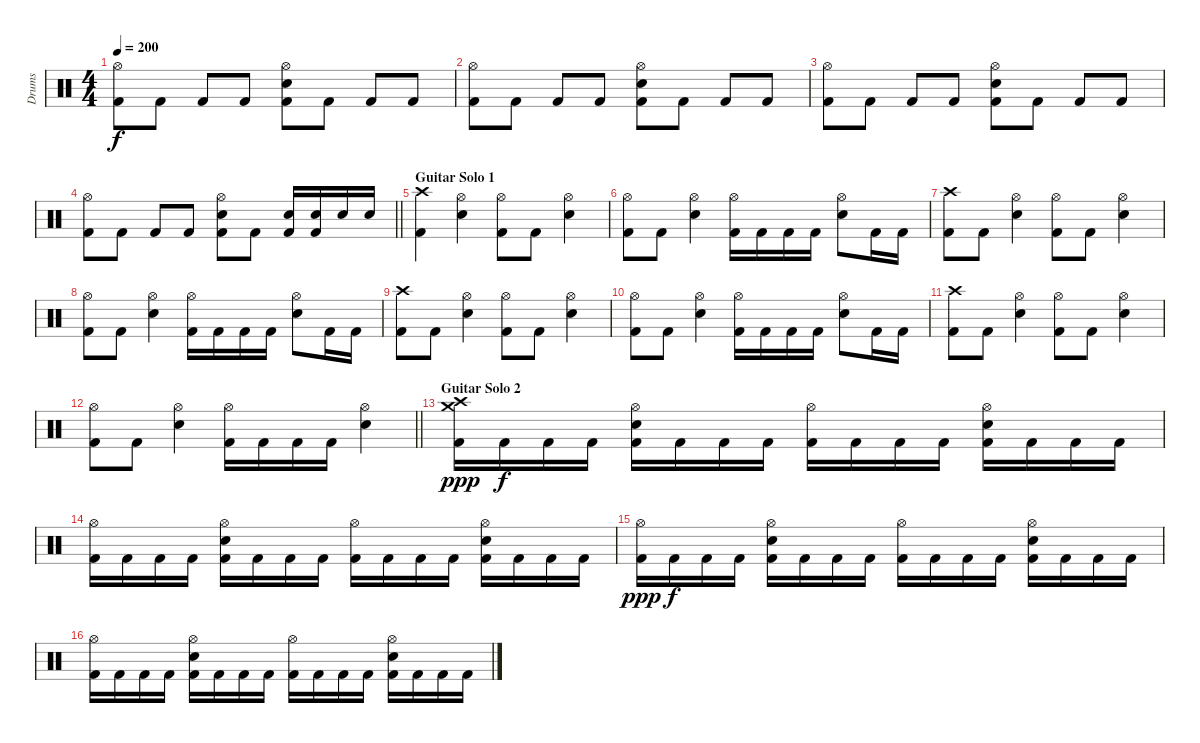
\track ("Drums" "Drums") {instrument percussion}
\staff {score}
\articulation defaults
\ts (4 4)
\tempo 200
\clef neutral
\ks c
("Hi-Hat (open)" "Kick (hit) 2").8{dy f} "Kick (hit) 2".8 "Kick (hit) 2".8 "Kick (hit) 2".8 ("Hi-Hat (open)" "Electric Snare (hit)" "Kick (hit) 2").8 "Kick (hit) 2".8 "Kick (hit) 2".8 "Kick (hit) 2".8 |
("Hi-Hat (open)" "Kick (hit) 2").8 "Kick (hit) 2".8 "Kick (hit) 2".8 "Kick (hit) 2".8 ("Hi-Hat (open)" "Electric Snare (hit)" "Kick (hit) 2").8 "Kick (hit) 2".8 "Kick (hit) 2".8 "Kick (hit) 2".8 |
("Hi-Hat (open)" "Kick (hit) 2").8 "Kick (hit) 2".8 "Kick (hit) 2".8 "Kick (hit) 2".8 ("Hi-Hat (open)" "Electric Snare (hit)" "Kick (hit) 2").8 "Kick (hit) 2".8 "Kick (hit) 2".8 "Kick (hit) 2".8 |
\barLineRight lightlight
("Hi-Hat (open)" "Kick (hit) 2").8 "Kick (hit) 2".8 "Kick (hit) 2".8 "Kick (hit) 2".8 ("Hi-Hat (open)" "Electric Snare (hit)" "Kick (hit) 2").8 "Kick (hit) 2".8 ("Electric Snare (hit)" "Kick (hit) 2").16 ("Electric Snare (hit)" "Kick (hit) 2").16 "Electric Snare (hit)".16 "Electric Snare (hit)".16 |
\section ("" "Guitar Solo 1")
("Crash high (hit)" "Kick (hit) 2").4 ("Hi-Hat (open)" "Electric Snare (hit)").4 ("Hi-Hat (open)" "Kick (hit) 2").8 "Kick (hit) 2".8 ("Hi-Hat (open)" "Electric Snare (hit)").4 |
("Hi-Hat (open)" "Kick (hit) 2").8 "Kick (hit) 2".8 ("Hi-Hat (open)" "Electric Snare (hit)").4 ("Hi-Hat (open)" "Kick (hit) 2").16 "Kick (hit) 2".16 "Kick (hit) 2".16 "Kick (hit) 2".16 ("Hi-Hat (open)" "Electric Snare (hit)").8 "Kick (hit) 2".16 "Kick (hit) 2".16 |
("Crash high (hit)" "Kick (hit) 2").8 "Kick (hit) 2".8 ("Hi-Hat (open)" "Electric Snare (hit)").4 ("Hi-Hat (open)" "Kick (hit) 2").8 "Kick (hit) 2".8 ("Hi-Hat (open)" "Electric Snare (hit)").4 |
("Hi-Hat (open)" "Kick (hit) 2").8 "Kick (hit) 2".8 ("Hi-Hat (open)" "Electric Snare (hit)").4 ("Hi-Hat (open)" "Kick (hit) 2").16 "Kick (hit) 2".16 "Kick (hit) 2".16 "Kick (hit) 2".16 ("Hi-Hat (open)" "Electric Snare (hit)").8 "Kick (hit) 2".16 "Kick (hit) 2".16 |
("Crash high (hit)" "Kick (hit) 2").8 "Kick (hit) 2".8 ("Hi-Hat (open)" "Electric Snare (hit)").4 ("Hi-Hat (open)" "Kick (hit) 2").8 "Kick (hit) 2".8 ("Hi-Hat (open)" "Electric Snare (hit)").4 |
("Hi-Hat (open)" "Kick (hit) 2").8 "Kick (hit) 2".8 ("Hi-Hat (open)" "Electric Snare (hit)").4 ("Hi-Hat (open)" "Kick (hit) 2").16 "Kick (hit) 2".16 "Kick (hit) 2".16 "Kick (hit) 2".16 ("Hi-Hat (open)" "Electric Snare (hit)").8 "Kick (hit) 2".16 "Kick (hit) 2".16 |
("Crash high (hit)" "Kick (hit) 2").8 "Kick (hit) 2".8 ("Hi-Hat (open)" "Electric Snare (hit)").4 ("Hi-Hat (open)" "Kick (hit) 2").8 "Kick (hit) 2".8 ("Hi-Hat (open)" "Electric Snare (hit)").4 |
\barLineRight lightlight
("Hi-Hat (open)" "Kick (hit) 2").8 "Kick (hit) 2".8 ("Hi-Hat (open)" "Electric Snare (hit)").4 ("Hi-Hat (open)" "Kick (hit) 2").16 "Kick (hit) 2".16 "Kick (hit) 2".16 "Kick (hit) 2".16 ("Hi-Hat (open)" "Electric Snare (hit)").4 |
\section ("" "Guitar Solo 2")
("Crash high (hit)" "Crash medium (hit)" "Kick (hit) 2").16{dy ppp} "Kick (hit) 2".16{dy f} "Kick (hit) 2".16 "Kick (hit) 2".16 ("Hi-Hat (open)" "Electric Snare (hit)" "Kick (hit) 2").16 "Kick (hit) 2".16 "Kick (hit) 2".16 "Kick (hit) 2".16 ("Hi-Hat (open)" "Kick (hit) 2").16 "Kick (hit) 2".16 "Kick (hit) 2".16 "Kick (hit) 2".16 ("Hi-Hat (open)" "Electric Snare (hit)" "Kick (hit) 2").16 "Kick (hit) 2".16 "Kick (hit) 2".16 "Kick (hit) 2".16 |
("Hi-Hat (open)" "Kick (hit) 2").16 "Kick (hit) 2".16 "Kick (hit) 2".16 "Kick (hit) 2".16 ("Hi-Hat (open)" "Electric Snare (hit)" "Kick (hit) 2").16 "Kick (hit) 2".16 "Kick (hit) 2".16 "Kick (hit) 2".16 ("Hi-Hat (open)" "Kick (hit) 2").16 "Kick (hit) 2".16 "Kick (hit) 2".16 "Kick (hit) 2".16 ("Hi-Hat (open)" "Electric Snare (hit)" "Kick (hit) 2").16 "Kick (hit) 2".16 "Kick (hit) 2".16 "Kick (hit) 2".16 |
("Hi-Hat (open)" "Kick (hit) 2").16{dy ppp} "Kick (hit) 2".16{dy f} "Kick (hit) 2".16 "Kick (hit) 2".16 ("Hi-Hat (open)" "Electric Snare (hit)" "Kick (hit) 2").16 "Kick (hit) 2".16 "Kick (hit) 2".16 "Kick (hit) 2".16 ("Hi-Hat (open)" "Kick (hit) 2").16 "Kick (hit) 2".16 "Kick (hit) 2".16 "Kick (hit) 2".16 ("Hi-Hat (open)" "Electric Snare (hit)" "Kick (hit) 2").16 "Kick (hit) 2".16 "Kick (hit) 2".16 "Kick (hit) 2".16 |
("Hi-Hat (open)" "Kick (hit) 2").16 "Kick (hit) 2".16 "Kick (hit) 2".16 "Kick (hit) 2".16 ("Hi-Hat (open)" "Electric Snare (hit)" "Kick (hit) 2").16 "Kick (hit) 2".16 "Kick (hit) 2".16 "Kick (hit) 2".16 ("Hi-Hat (open)" "Kick (hit) 2").16 "Kick (hit) 2".16 "Kick (hit) 2".16 "Kick (hit) 2".16 ("Hi-Hat (open)" "Electric Snare (hit)" "Kick (hit) 2").16 "Kick (hit) 2".16 "Kick (hit) 2".16 "Kick (hit) 2".16
